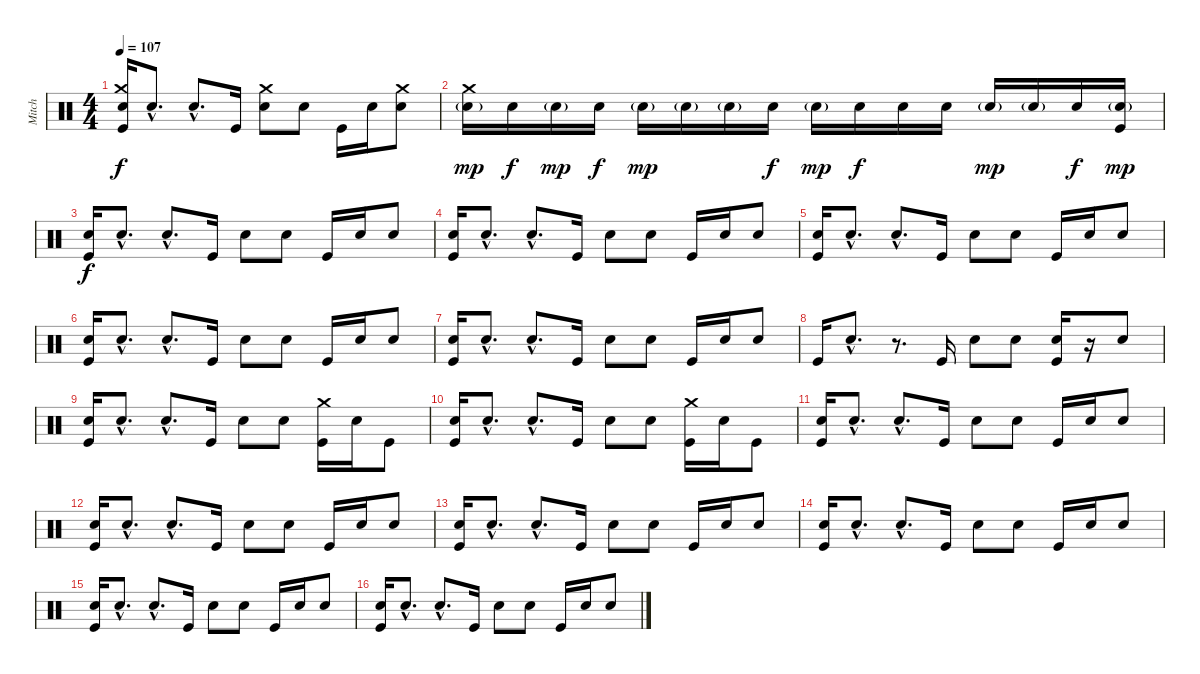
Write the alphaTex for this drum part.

\track ("Mitch" "Mitch") {instrument percussion}
\staff {score}
\articulation defaults
\ts (4 4)
\tempo 107
\clef neutral
\ks c
("Electric Snare (hit)" "Crash medium (hit)" "Kick (hit)").16{dy f} "Electric Snare (hit)"{hac}.8{d} "Electric Snare (hit)"{hac}.8{d} "Kick (hit)".16 ("Electric Snare (hit)" "Crash medium (hit)").8 "Electric Snare (hit)".8 "Kick (hit)".16 "Electric Snare (hit)".16 ("Electric Snare (hit)" "Crash medium (hit)").8 |
("Crash medium (hit)" "Electric Snare (hit)"{g}).16{dy mp} "Electric Snare (hit)".16{dy f} "Electric Snare (hit)"{g}.16{dy mp} "Electric Snare (hit)".16{dy f} "Electric Snare (hit)"{g}.16{dy mp} "Electric Snare (hit)"{g}.16 "Electric Snare (hit)"{g}.16 "Electric Snare (hit)".16{dy f} "Electric Snare (hit)"{g}.16{dy mp} "Electric Snare (hit)".16{dy f} "Electric Snare (hit)".16 "Electric Snare (hit)".16 "Electric Snare (hit)"{g}.16{dy mp} "Electric Snare (hit)"{g}.16 "Electric Snare (hit)".16{dy f} ("Electric Snare (hit)"{g} "Kick (hit)").16{dy mp} |
("Electric Snare (hit)" "Kick (hit)").16{dy f} "Electric Snare (hit)"{hac}.8{d} "Electric Snare (hit)"{hac}.8{d} "Kick (hit)".16 "Electric Snare (hit)".8 "Electric Snare (hit)".8 "Kick (hit)".16 "Electric Snare (hit)".16 "Electric Snare (hit)".8 |
("Electric Snare (hit)" "Kick (hit)").16 "Electric Snare (hit)"{hac}.8{d} "Electric Snare (hit)"{hac}.8{d} "Kick (hit)".16 "Electric Snare (hit)".8 "Electric Snare (hit)".8 "Kick (hit)".16 "Electric Snare (hit)".16 "Electric Snare (hit)".8 |
("Electric Snare (hit)" "Kick (hit)").16 "Electric Snare (hit)"{hac}.8{d} "Electric Snare (hit)"{hac}.8{d} "Kick (hit)".16 "Electric Snare (hit)".8 "Electric Snare (hit)".8 "Kick (hit)".16 "Electric Snare (hit)".16 "Electric Snare (hit)".8 |
("Electric Snare (hit)" "Kick (hit)").16 "Electric Snare (hit)"{hac}.8{d} "Electric Snare (hit)"{hac}.8{d} "Kick (hit)".16 "Electric Snare (hit)".8 "Electric Snare (hit)".8 "Kick (hit)".16 "Electric Snare (hit)".16 "Electric Snare (hit)".8 |
("Electric Snare (hit)" "Kick (hit)").16 "Electric Snare (hit)"{hac}.8{d} "Electric Snare (hit)"{hac}.8{d} "Kick (hit)".16 "Electric Snare (hit)".8 "Electric Snare (hit)".8 "Kick (hit)".16 "Electric Snare (hit)".16 "Electric Snare (hit)".8 |
"Kick (hit)".16 "Electric Snare (hit)"{hac}.8{d} r.8{d} "Kick (hit)".16 "Electric Snare (hit)".8 "Electric Snare (hit)".8 ("Electric Snare (hit)" "Kick (hit)").16 r.16 "Electric Snare (hit)".8 |
("Electric Snare (hit)" "Kick (hit)").16 "Electric Snare (hit)"{hac}.8{d} "Electric Snare (hit)"{hac}.8{d} "Kick (hit)".16 "Electric Snare (hit)".8 "Electric Snare (hit)".8 ("Crash medium (hit)" "Kick (hit)").16 "Electric Snare (hit)".16 "Kick (hit)".8 |
("Electric Snare (hit)" "Kick (hit)").16 "Electric Snare (hit)"{hac}.8{d} "Electric Snare (hit)"{hac}.8{d} "Kick (hit)".16 "Electric Snare (hit)".8 "Electric Snare (hit)".8 ("Crash medium (hit)" "Kick (hit)").16 "Electric Snare (hit)".16 "Kick (hit)".8 |
("Electric Snare (hit)" "Kick (hit)").16 "Electric Snare (hit)"{hac}.8{d} "Electric Snare (hit)"{hac}.8{d} "Kick (hit)".16 "Electric Snare (hit)".8 "Electric Snare (hit)".8 "Kick (hit)".16 "Electric Snare (hit)".16 "Electric Snare (hit)".8 |
("Electric Snare (hit)" "Kick (hit)").16 "Electric Snare (hit)"{hac}.8{d} "Electric Snare (hit)"{hac}.8{d} "Kick (hit)".16 "Electric Snare (hit)".8 "Electric Snare (hit)".8 "Kick (hit)".16 "Electric Snare (hit)".16 "Electric Snare (hit)".8 |
("Electric Snare (hit)" "Kick (hit)").16 "Electric Snare (hit)"{hac}.8{d} "Electric Snare (hit)"{hac}.8{d} "Kick (hit)".16 "Electric Snare (hit)".8 "Electric Snare (hit)".8 "Kick (hit)".16 "Electric Snare (hit)".16 "Electric Snare (hit)".8 |
("Electric Snare (hit)" "Kick (hit)").16 "Electric Snare (hit)"{hac}.8{d} "Electric Snare (hit)"{hac}.8{d} "Kick (hit)".16 "Electric Snare (hit)".8 "Electric Snare (hit)".8 "Kick (hit)".16 "Electric Snare (hit)".16 "Electric Snare (hit)".8 |
("Electric Snare (hit)" "Kick (hit)").16 "Electric Snare (hit)"{hac}.8{d} "Electric Snare (hit)"{hac}.8{d} "Kick (hit)".16 "Electric Snare (hit)".8 "Electric Snare (hit)".8 "Kick (hit)".16 "Electric Snare (hit)".16 "Electric Snare (hit)".8 |
("Electric Snare (hit)" "Kick (hit)").16 "Electric Snare (hit)"{hac}.8{d} "Electric Snare (hit)"{hac}.8{d} "Kick (hit)".16 "Electric Snare (hit)".8 "Electric Snare (hit)".8 "Kick (hit)".16 "Electric Snare (hit)".16 "Electric Snare (hit)".8
